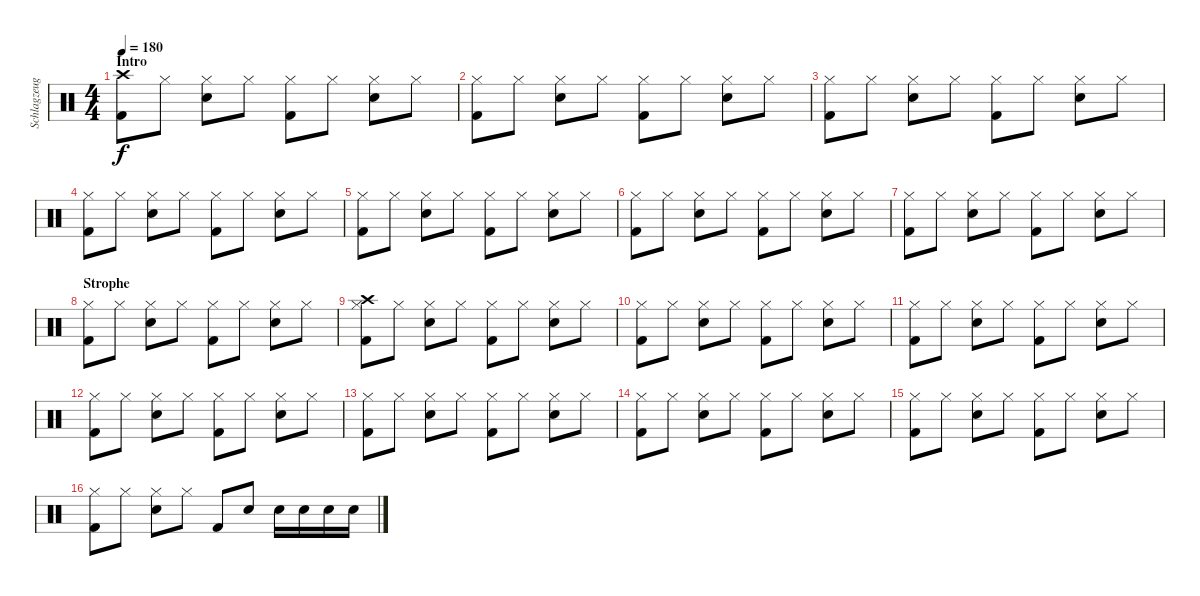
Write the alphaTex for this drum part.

\track ("Schlagzeug" "Schlagzeug") {instrument percussion}
\staff {score}
\articulation defaults
\ts (4 4)
\section ("" "Intro")
\tempo 180
\clef neutral
\ks c
("Crash high (hit)" "Kick (hit) 2").8{dy f} "Hi-Hat (closed)".8 ("Hi-Hat (closed)" "Snare (hit) 2").8 "Hi-Hat (closed)".8 ("Hi-Hat (closed)" "Kick (hit) 2").8 "Hi-Hat (closed)".8 ("Hi-Hat (closed)" "Snare (hit) 2").8 "Hi-Hat (closed)".8 |
("Kick (hit) 2" "Hi-Hat (closed)").8 "Hi-Hat (closed)".8 ("Snare (hit) 2" "Hi-Hat (closed)").8 "Hi-Hat (closed)".8 ("Kick (hit) 2" "Hi-Hat (closed)").8 "Hi-Hat (closed)".8 ("Snare (hit) 2" "Hi-Hat (closed)").8 "Hi-Hat (closed)".8 |
("Hi-Hat (closed)" "Kick (hit) 2").8 "Hi-Hat (closed)".8 ("Hi-Hat (closed)" "Snare (hit) 2").8 "Hi-Hat (closed)".8 ("Hi-Hat (closed)" "Kick (hit) 2").8 "Hi-Hat (closed)".8 ("Hi-Hat (closed)" "Snare (hit) 2").8 "Hi-Hat (closed)".8 |
("Hi-Hat (closed)" "Kick (hit) 2").8 "Hi-Hat (closed)".8 ("Hi-Hat (closed)" "Snare (hit) 2").8 "Hi-Hat (closed)".8 ("Hi-Hat (closed)" "Kick (hit) 2").8 "Hi-Hat (closed)".8 ("Hi-Hat (closed)" "Snare (hit) 2").8 "Hi-Hat (closed)".8 |
("Hi-Hat (closed)" "Kick (hit) 2").8 "Hi-Hat (closed)".8 ("Hi-Hat (closed)" "Snare (hit) 2").8 "Hi-Hat (closed)".8 ("Hi-Hat (closed)" "Kick (hit) 2").8 "Hi-Hat (closed)".8 ("Hi-Hat (closed)" "Snare (hit) 2").8 "Hi-Hat (closed)".8 |
("Hi-Hat (closed)" "Kick (hit) 2").8 "Hi-Hat (closed)".8 ("Hi-Hat (closed)" "Snare (hit) 2").8 "Hi-Hat (closed)".8 ("Hi-Hat (closed)" "Kick (hit) 2").8 "Hi-Hat (closed)".8 ("Hi-Hat (closed)" "Snare (hit) 2").8 "Hi-Hat (closed)".8 |
("Hi-Hat (closed)" "Kick (hit) 2").8 "Hi-Hat (closed)".8 ("Hi-Hat (closed)" "Snare (hit) 2").8 "Hi-Hat (closed)".8 ("Hi-Hat (closed)" "Kick (hit) 2").8 "Hi-Hat (closed)".8 ("Hi-Hat (closed)" "Snare (hit) 2").8 "Hi-Hat (closed)".8 |
\section ("" "Strophe")
("Hi-Hat (closed)" "Kick (hit) 2").8 "Hi-Hat (closed)".8 ("Hi-Hat (closed)" "Snare (hit) 2").8 "Hi-Hat (closed)".8 ("Hi-Hat (closed)" "Kick (hit) 2").8 "Hi-Hat (closed)".8 ("Hi-Hat (closed)" "Snare (hit) 2").8 "Hi-Hat (closed)".8 |
("Crash high (hit)" "Hi-Hat (closed)" "Kick (hit) 2").8 "Hi-Hat (closed)".8 ("Hi-Hat (closed)" "Snare (hit) 2").8 "Hi-Hat (closed)".8 ("Hi-Hat (closed)" "Kick (hit) 2").8 "Hi-Hat (closed)".8 ("Hi-Hat (closed)" "Snare (hit) 2").8 "Hi-Hat (closed)".8 |
("Hi-Hat (closed)" "Kick (hit) 2").8 "Hi-Hat (closed)".8 ("Hi-Hat (closed)" "Snare (hit) 2").8 "Hi-Hat (closed)".8 ("Hi-Hat (closed)" "Kick (hit) 2").8 "Hi-Hat (closed)".8 ("Hi-Hat (closed)" "Snare (hit) 2").8 "Hi-Hat (closed)".8 |
("Hi-Hat (closed)" "Kick (hit) 2").8 "Hi-Hat (closed)".8 ("Hi-Hat (closed)" "Snare (hit) 2").8 "Hi-Hat (closed)".8 ("Hi-Hat (closed)" "Kick (hit) 2").8 "Hi-Hat (closed)".8 ("Hi-Hat (closed)" "Snare (hit) 2").8 "Hi-Hat (closed)".8 |
("Hi-Hat (closed)" "Kick (hit) 2").8 "Hi-Hat (closed)".8 ("Hi-Hat (closed)" "Snare (hit) 2").8 "Hi-Hat (closed)".8 ("Hi-Hat (closed)" "Kick (hit) 2").8 "Hi-Hat (closed)".8 ("Hi-Hat (closed)" "Snare (hit) 2").8 "Hi-Hat (closed)".8 |
("Hi-Hat (closed)" "Kick (hit) 2").8 "Hi-Hat (closed)".8 ("Hi-Hat (closed)" "Snare (hit) 2").8 "Hi-Hat (closed)".8 ("Hi-Hat (closed)" "Kick (hit) 2").8 "Hi-Hat (closed)".8 ("Hi-Hat (closed)" "Snare (hit) 2").8 "Hi-Hat (closed)".8 |
("Hi-Hat (closed)" "Kick (hit) 2").8 "Hi-Hat (closed)".8 ("Hi-Hat (closed)" "Snare (hit) 2").8 "Hi-Hat (closed)".8 ("Hi-Hat (closed)" "Kick (hit) 2").8 "Hi-Hat (closed)".8 ("Hi-Hat (closed)" "Snare (hit) 2").8 "Hi-Hat (closed)".8 |
("Hi-Hat (closed)" "Kick (hit) 2").8 "Hi-Hat (closed)".8 ("Hi-Hat (closed)" "Snare (hit) 2").8 "Hi-Hat (closed)".8 ("Hi-Hat (closed)" "Kick (hit) 2").8 "Hi-Hat (closed)".8 ("Hi-Hat (closed)" "Snare (hit) 2").8 "Hi-Hat (closed)".8 |
("Hi-Hat (closed)" "Kick (hit) 2").8 "Hi-Hat (closed)".8 ("Hi-Hat (closed)" "Snare (hit) 2").8 "Hi-Hat (closed)".8 "Kick (hit) 2".8 "Snare (hit) 2".8 "Snare (hit) 2".16 "Snare (hit) 2".16 "Snare (hit) 2".16 "Snare (hit) 2".16
